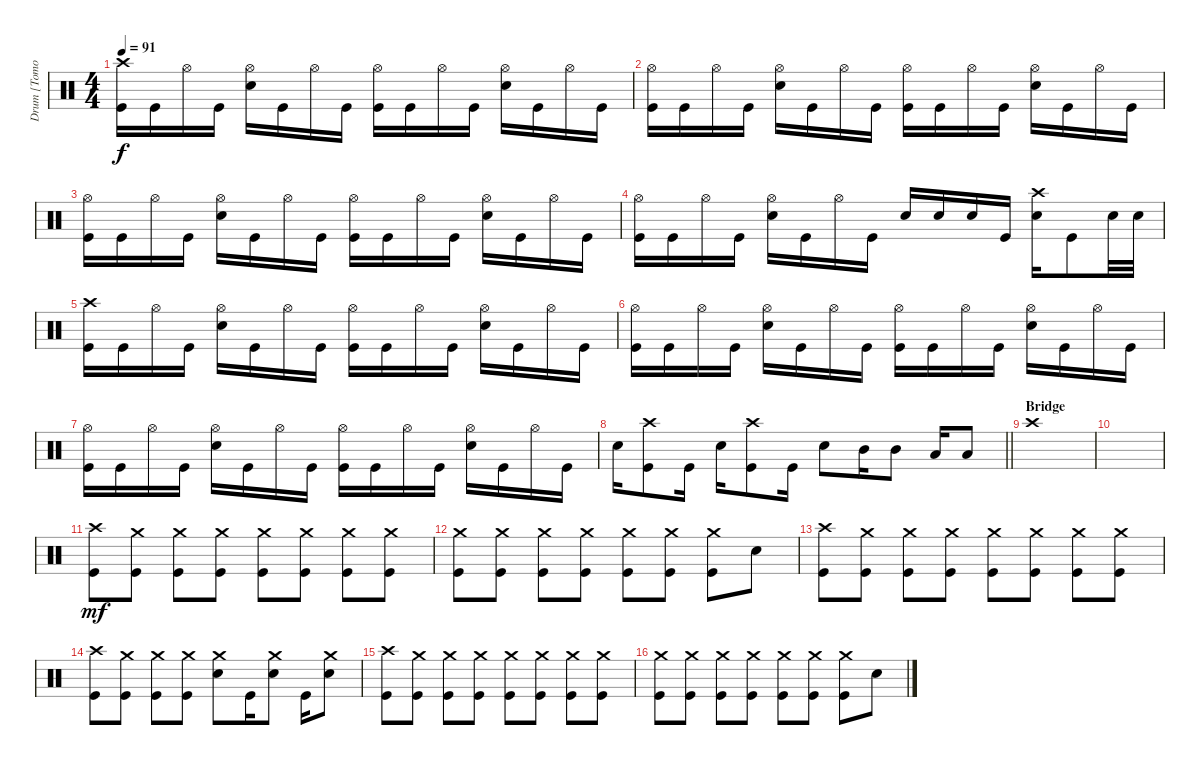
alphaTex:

\track ("Drum [Tomoya]" "Drum [Tomo") {instrument percussion}
\staff {score}
\articulation defaults
\ts (4 4)
\tempo 91
\clef neutral
\ks c
("Crash high (hit)" "Kick (hit)").16{dy f} "Kick (hit)".16 "Hi-Hat (open)".16 "Kick (hit)".16 ("Hi-Hat (open)" "Snare (hit) 2").16 "Kick (hit)".16 "Hi-Hat (open)".16 "Kick (hit)".16 ("Hi-Hat (open)" "Kick (hit)").16 "Kick (hit)".16 "Hi-Hat (open)".16 "Kick (hit)".16 ("Hi-Hat (open)" "Snare (hit) 2").16 "Kick (hit)".16 "Hi-Hat (open)".16 "Kick (hit)".16 |
("Hi-Hat (open)" "Kick (hit)").16 "Kick (hit)".16 "Hi-Hat (open)".16 "Kick (hit)".16 ("Hi-Hat (open)" "Snare (hit) 2").16 "Kick (hit)".16 "Hi-Hat (open)".16 "Kick (hit)".16 ("Hi-Hat (open)" "Kick (hit)").16 "Kick (hit)".16 "Hi-Hat (open)".16 "Kick (hit)".16 ("Hi-Hat (open)" "Snare (hit) 2").16 "Kick (hit)".16 "Hi-Hat (open)".16 "Kick (hit)".16 |
("Hi-Hat (open)" "Kick (hit)").16 "Kick (hit)".16 "Hi-Hat (open)".16 "Kick (hit)".16 ("Hi-Hat (open)" "Snare (hit) 2").16 "Kick (hit)".16 "Hi-Hat (open)".16 "Kick (hit)".16 ("Hi-Hat (open)" "Kick (hit)").16 "Kick (hit)".16 "Hi-Hat (open)".16 "Kick (hit)".16 ("Hi-Hat (open)" "Snare (hit) 2").16 "Kick (hit)".16 "Hi-Hat (open)".16 "Kick (hit)".16 |
("Hi-Hat (open)" "Kick (hit)").16 "Kick (hit)".16 "Hi-Hat (open)".16 "Kick (hit)".16 ("Hi-Hat (open)" "Snare (hit) 2").16 "Kick (hit)".16 "Hi-Hat (open)".16 "Kick (hit)".16 "Snare (hit) 2".16 "Snare (hit) 2".16 "Snare (hit) 2".16 "Kick (hit)".16 ("Snare (hit) 2" "Crash high (hit)").16 "Kick (hit)".8 "Snare (hit) 2".32 "Snare (hit) 2".32 |
("Crash high (hit)" "Kick (hit)").16 "Kick (hit)".16 "Hi-Hat (open)".16 "Kick (hit)".16 ("Hi-Hat (open)" "Snare (hit) 2").16 "Kick (hit)".16 "Hi-Hat (open)".16 "Kick (hit)".16 ("Hi-Hat (open)" "Kick (hit)").16 "Kick (hit)".16 "Hi-Hat (open)".16 "Kick (hit)".16 ("Hi-Hat (open)" "Snare (hit) 2").16 "Kick (hit)".16 "Hi-Hat (open)".16 "Kick (hit)".16 |
("Hi-Hat (open)" "Kick (hit)").16 "Kick (hit)".16 "Hi-Hat (open)".16 "Kick (hit)".16 ("Hi-Hat (open)" "Snare (hit) 2").16 "Kick (hit)".16 "Hi-Hat (open)".16 "Kick (hit)".16 ("Hi-Hat (open)" "Kick (hit)").16 "Kick (hit)".16 "Hi-Hat (open)".16 "Kick (hit)".16 ("Hi-Hat (open)" "Snare (hit) 2").16 "Kick (hit)".16 "Hi-Hat (open)".16 "Kick (hit)".16 |
("Hi-Hat (open)" "Kick (hit)").16 "Kick (hit)".16 "Hi-Hat (open)".16 "Kick (hit)".16 ("Hi-Hat (open)" "Snare (hit) 2").16 "Kick (hit)".16 "Hi-Hat (open)".16 "Kick (hit)".16 ("Hi-Hat (open)" "Kick (hit)").16 "Kick (hit)".16 "Hi-Hat (open)".16 "Kick (hit)".16 ("Hi-Hat (open)" "Snare (hit) 2").16 "Kick (hit)".16 "Hi-Hat (open)".16 "Kick (hit)".16 |
\barLineRight lightlight "Snare (hit) 2".16
("Crash high (hit)" "Kick (hit)").8 "Kick (hit)".16 "Snare (hit) 2".16 ("Crash high (hit)" "Kick (hit)").8 "Kick (hit)".16 "Snare (hit) 2".8 "Mid Tom (hit)".16 "Mid Tom (hit)".8 "Low Floor Tom (hit)".16 "Low Floor Tom (hit)".8 |
\section ("" "Bridge")
"Crash high (hit)".1 |
|
("Crash high (hit)" "Kick (hit)").8{dy mf} ("Crash medium (hit)" "Kick (hit)").8 ("Crash medium (hit)" "Kick (hit)").8 ("Crash medium (hit)" "Kick (hit)").8 ("Crash medium (hit)" "Kick (hit)").8 ("Crash medium (hit)" "Kick (hit)").8 ("Crash medium (hit)" "Kick (hit)").8 ("Crash medium (hit)" "Kick (hit)").8 |
("Crash medium (hit)" "Kick (hit)").8 ("Crash medium (hit)" "Kick (hit)").8 ("Crash medium (hit)" "Kick (hit)").8 ("Crash medium (hit)" "Kick (hit)").8 ("Crash medium (hit)" "Kick (hit)").8 ("Crash medium (hit)" "Kick (hit)").8 ("Crash medium (hit)" "Kick (hit)").8 "Snare (hit) 2".8 |
("Crash high (hit)" "Kick (hit)").8 ("Crash medium (hit)" "Kick (hit)").8 ("Crash medium (hit)" "Kick (hit)").8 ("Crash medium (hit)" "Kick (hit)").8 ("Crash medium (hit)" "Kick (hit)").8 ("Crash medium (hit)" "Kick (hit)").8 ("Crash medium (hit)" "Kick (hit)").8 ("Crash medium (hit)" "Kick (hit)").8 |
("Crash high (hit)" "Kick (hit)").8 ("Crash medium (hit)" "Kick (hit)").8 ("Crash medium (hit)" "Kick (hit)").8 ("Crash medium (hit)" "Kick (hit)").8 ("Crash medium (hit)" "Snare (hit) 2").8 "Kick (hit)".16 ("Crash medium (hit)" "Snare (hit) 2").8 "Kick (hit)".16 ("Crash medium (hit)" "Snare (hit) 2").8 |
("Crash high (hit)" "Kick (hit)").8 ("Crash medium (hit)" "Kick (hit)").8 ("Crash medium (hit)" "Kick (hit)").8 ("Crash medium (hit)" "Kick (hit)").8 ("Crash medium (hit)" "Kick (hit)").8 ("Crash medium (hit)" "Kick (hit)").8 ("Crash medium (hit)" "Kick (hit)").8 ("Crash medium (hit)" "Kick (hit)").8 |
("Crash medium (hit)" "Kick (hit)").8 ("Crash medium (hit)" "Kick (hit)").8 ("Crash medium (hit)" "Kick (hit)").8 ("Crash medium (hit)" "Kick (hit)").8 ("Crash medium (hit)" "Kick (hit)").8 ("Crash medium (hit)" "Kick (hit)").8 ("Crash medium (hit)" "Kick (hit)").8 "Snare (hit) 2".8
